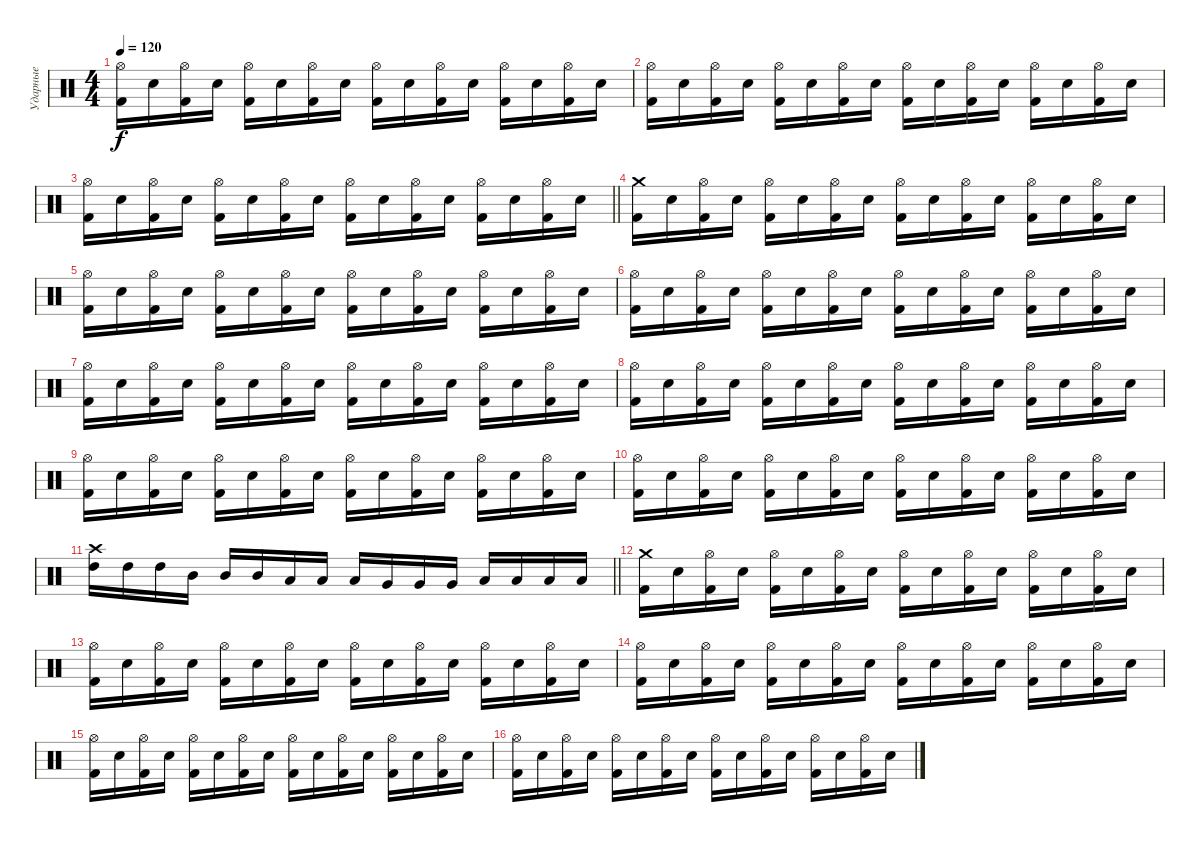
\track ("Ударные" "Ударные") {instrument percussion}
\staff {score}
\articulation defaults
\ts (4 4)
\tempo 120
\clef neutral
\ks c
("Kick (hit) 2" "Hi-Hat (open)").16{dy f} "Electric Snare (hit)".16 ("Kick (hit) 2" "Hi-Hat (open)").16 "Electric Snare (hit)".16 ("Kick (hit) 2" "Hi-Hat (open)").16 "Electric Snare (hit)".16 ("Kick (hit) 2" "Hi-Hat (open)").16 "Electric Snare (hit)".16 ("Kick (hit) 2" "Hi-Hat (open)").16 "Electric Snare (hit)".16 ("Kick (hit) 2" "Hi-Hat (open)").16 "Electric Snare (hit)".16 ("Kick (hit) 2" "Hi-Hat (open)").16 "Electric Snare (hit)".16 ("Kick (hit) 2" "Hi-Hat (open)").16 "Electric Snare (hit)".16 |
("Kick (hit) 2" "Hi-Hat (open)").16 "Electric Snare (hit)".16 ("Kick (hit) 2" "Hi-Hat (open)").16 "Electric Snare (hit)".16 ("Kick (hit) 2" "Hi-Hat (open)").16 "Electric Snare (hit)".16 ("Kick (hit) 2" "Hi-Hat (open)").16 "Electric Snare (hit)".16 ("Kick (hit) 2" "Hi-Hat (open)").16 "Electric Snare (hit)".16 ("Kick (hit) 2" "Hi-Hat (open)").16 "Electric Snare (hit)".16 ("Kick (hit) 2" "Hi-Hat (open)").16 "Electric Snare (hit)".16 ("Kick (hit) 2" "Hi-Hat (open)").16 "Electric Snare (hit)".16 |
\barLineRight lightlight
("Kick (hit) 2" "Hi-Hat (open)").16 "Electric Snare (hit)".16 ("Kick (hit) 2" "Hi-Hat (open)").16 "Electric Snare (hit)".16 ("Kick (hit) 2" "Hi-Hat (open)").16 "Electric Snare (hit)".16 ("Kick (hit) 2" "Hi-Hat (open)").16 "Electric Snare (hit)".16 ("Kick (hit) 2" "Hi-Hat (open)").16 "Electric Snare (hit)".16 ("Kick (hit) 2" "Hi-Hat (open)").16 "Electric Snare (hit)".16 ("Kick (hit) 2" "Hi-Hat (open)").16 "Electric Snare (hit)".16 ("Kick (hit) 2" "Hi-Hat (open)").16 "Electric Snare (hit)".16 |
("Kick (hit) 2" "Crash medium (hit)").16 "Electric Snare (hit)".16 ("Kick (hit) 2" "Hi-Hat (open)").16 "Electric Snare (hit)".16 ("Kick (hit) 2" "Hi-Hat (open)").16 "Electric Snare (hit)".16 ("Kick (hit) 2" "Hi-Hat (open)").16 "Electric Snare (hit)".16 ("Kick (hit) 2" "Hi-Hat (open)").16 "Electric Snare (hit)".16 ("Kick (hit) 2" "Hi-Hat (open)").16 "Electric Snare (hit)".16 ("Kick (hit) 2" "Hi-Hat (open)").16 "Electric Snare (hit)".16 ("Kick (hit) 2" "Hi-Hat (open)").16 "Electric Snare (hit)".16 |
("Kick (hit) 2" "Hi-Hat (open)").16 "Electric Snare (hit)".16 ("Kick (hit) 2" "Hi-Hat (open)").16 "Electric Snare (hit)".16 ("Kick (hit) 2" "Hi-Hat (open)").16 "Electric Snare (hit)".16 ("Kick (hit) 2" "Hi-Hat (open)").16 "Electric Snare (hit)".16 ("Kick (hit) 2" "Hi-Hat (open)").16 "Electric Snare (hit)".16 ("Kick (hit) 2" "Hi-Hat (open)").16 "Electric Snare (hit)".16 ("Kick (hit) 2" "Hi-Hat (open)").16 "Electric Snare (hit)".16 ("Kick (hit) 2" "Hi-Hat (open)").16 "Electric Snare (hit)".16 |
("Kick (hit) 2" "Hi-Hat (open)").16 "Electric Snare (hit)".16 ("Kick (hit) 2" "Hi-Hat (open)").16 "Electric Snare (hit)".16 ("Kick (hit) 2" "Hi-Hat (open)").16 "Electric Snare (hit)".16 ("Kick (hit) 2" "Hi-Hat (open)").16 "Electric Snare (hit)".16 ("Kick (hit) 2" "Hi-Hat (open)").16 "Electric Snare (hit)".16 ("Kick (hit) 2" "Hi-Hat (open)").16 "Electric Snare (hit)".16 ("Kick (hit) 2" "Hi-Hat (open)").16 "Electric Snare (hit)".16 ("Kick (hit) 2" "Hi-Hat (open)").16 "Electric Snare (hit)".16 |
("Kick (hit) 2" "Hi-Hat (open)").16 "Electric Snare (hit)".16 ("Kick (hit) 2" "Hi-Hat (open)").16 "Electric Snare (hit)".16 ("Kick (hit) 2" "Hi-Hat (open)").16 "Electric Snare (hit)".16 ("Kick (hit) 2" "Hi-Hat (open)").16 "Electric Snare (hit)".16 ("Kick (hit) 2" "Hi-Hat (open)").16 "Electric Snare (hit)".16 ("Kick (hit) 2" "Hi-Hat (open)").16 "Electric Snare (hit)".16 ("Kick (hit) 2" "Hi-Hat (open)").16 "Electric Snare (hit)".16 ("Kick (hit) 2" "Hi-Hat (open)").16 "Electric Snare (hit)".16 |
("Kick (hit) 2" "Hi-Hat (open)").16 "Electric Snare (hit)".16 ("Kick (hit) 2" "Hi-Hat (open)").16 "Electric Snare (hit)".16 ("Kick (hit) 2" "Hi-Hat (open)").16 "Electric Snare (hit)".16 ("Kick (hit) 2" "Hi-Hat (open)").16 "Electric Snare (hit)".16 ("Kick (hit) 2" "Hi-Hat (open)").16 "Electric Snare (hit)".16 ("Kick (hit) 2" "Hi-Hat (open)").16 "Electric Snare (hit)".16 ("Kick (hit) 2" "Hi-Hat (open)").16 "Electric Snare (hit)".16 ("Kick (hit) 2" "Hi-Hat (open)").16 "Electric Snare (hit)".16 |
("Kick (hit) 2" "Hi-Hat (open)").16 "Electric Snare (hit)".16 ("Kick (hit) 2" "Hi-Hat (open)").16 "Electric Snare (hit)".16 ("Kick (hit) 2" "Hi-Hat (open)").16 "Electric Snare (hit)".16 ("Kick (hit) 2" "Hi-Hat (open)").16 "Electric Snare (hit)".16 ("Kick (hit) 2" "Hi-Hat (open)").16 "Electric Snare (hit)".16 ("Kick (hit) 2" "Hi-Hat (open)").16 "Electric Snare (hit)".16 ("Kick (hit) 2" "Hi-Hat (open)").16 "Electric Snare (hit)".16 ("Kick (hit) 2" "Hi-Hat (open)").16 "Electric Snare (hit)".16 |
("Kick (hit) 2" "Hi-Hat (open)").16 "Electric Snare (hit)".16 ("Kick (hit) 2" "Hi-Hat (open)").16 "Electric Snare (hit)".16 ("Kick (hit) 2" "Hi-Hat (open)").16 "Electric Snare (hit)".16 ("Kick (hit) 2" "Hi-Hat (open)").16 "Electric Snare (hit)".16 ("Kick (hit) 2" "Hi-Hat (open)").16 "Electric Snare (hit)".16 ("Kick (hit) 2" "Hi-Hat (open)").16 "Electric Snare (hit)".16 ("Kick (hit) 2" "Hi-Hat (open)").16 "Electric Snare (hit)".16 ("Kick (hit) 2" "Hi-Hat (open)").16 "Electric Snare (hit)".16 |
\barLineRight lightlight
("High Tom (hit)" "Crash high (hit)").16 "High Tom (hit)".16 "High Tom (hit)".16 "Mid Tom (hit)".16 "Mid Tom (hit)".16 "Mid Tom (hit)".16 "Low Tom (hit)".16 "Low Tom (hit)".16 "Low Tom (hit)".16 "Very Low Tom (hit)".16 "Very Low Tom (hit)".16 "Very Low Tom (hit)".16 "Low Floor Tom (hit)".16 "Low Floor Tom (hit)".16 "Low Floor Tom (hit)".16 "Low Floor Tom (hit)".16 |
\section ("" "")
("Kick (hit) 2" "Crash medium (hit)").16 "Electric Snare (hit)".16 ("Kick (hit) 2" "Hi-Hat (open)").16 "Electric Snare (hit)".16 ("Kick (hit) 2" "Hi-Hat (open)").16 "Electric Snare (hit)".16 ("Kick (hit) 2" "Hi-Hat (open)").16 "Electric Snare (hit)".16 ("Kick (hit) 2" "Hi-Hat (open)").16 "Electric Snare (hit)".16 ("Kick (hit) 2" "Hi-Hat (open)").16 "Electric Snare (hit)".16 ("Kick (hit) 2" "Hi-Hat (open)").16 "Electric Snare (hit)".16 ("Kick (hit) 2" "Hi-Hat (open)").16 "Electric Snare (hit)".16 |
("Kick (hit) 2" "Hi-Hat (open)").16 "Electric Snare (hit)".16 ("Kick (hit) 2" "Hi-Hat (open)").16 "Electric Snare (hit)".16 ("Kick (hit) 2" "Hi-Hat (open)").16 "Electric Snare (hit)".16 ("Kick (hit) 2" "Hi-Hat (open)").16 "Electric Snare (hit)".16 ("Kick (hit) 2" "Hi-Hat (open)").16 "Electric Snare (hit)".16 ("Kick (hit) 2" "Hi-Hat (open)").16 "Electric Snare (hit)".16 ("Kick (hit) 2" "Hi-Hat (open)").16 "Electric Snare (hit)".16 ("Kick (hit) 2" "Hi-Hat (open)").16 "Electric Snare (hit)".16 |
("Kick (hit) 2" "Hi-Hat (open)").16 "Electric Snare (hit)".16 ("Kick (hit) 2" "Hi-Hat (open)").16 "Electric Snare (hit)".16 ("Kick (hit) 2" "Hi-Hat (open)").16 "Electric Snare (hit)".16 ("Kick (hit) 2" "Hi-Hat (open)").16 "Electric Snare (hit)".16 ("Kick (hit) 2" "Hi-Hat (open)").16 "Electric Snare (hit)".16 ("Kick (hit) 2" "Hi-Hat (open)").16 "Electric Snare (hit)".16 ("Kick (hit) 2" "Hi-Hat (open)").16 "Electric Snare (hit)".16 ("Kick (hit) 2" "Hi-Hat (open)").16 "Electric Snare (hit)".16 |
("Kick (hit) 2" "Hi-Hat (open)").16 "Electric Snare (hit)".16 ("Kick (hit) 2" "Hi-Hat (open)").16 "Electric Snare (hit)".16 ("Kick (hit) 2" "Hi-Hat (open)").16 "Electric Snare (hit)".16 ("Kick (hit) 2" "Hi-Hat (open)").16 "Electric Snare (hit)".16 ("Kick (hit) 2" "Hi-Hat (open)").16 "Electric Snare (hit)".16 ("Kick (hit) 2" "Hi-Hat (open)").16 "Electric Snare (hit)".16 ("Kick (hit) 2" "Hi-Hat (open)").16 "Electric Snare (hit)".16 ("Kick (hit) 2" "Hi-Hat (open)").16 "Electric Snare (hit)".16 |
("Kick (hit) 2" "Hi-Hat (open)").16 "Electric Snare (hit)".16 ("Kick (hit) 2" "Hi-Hat (open)").16 "Electric Snare (hit)".16 ("Kick (hit) 2" "Hi-Hat (open)").16 "Electric Snare (hit)".16 ("Kick (hit) 2" "Hi-Hat (open)").16 "Electric Snare (hit)".16 ("Kick (hit) 2" "Hi-Hat (open)").16 "Electric Snare (hit)".16 ("Kick (hit) 2" "Hi-Hat (open)").16 "Electric Snare (hit)".16 ("Kick (hit) 2" "Hi-Hat (open)").16 "Electric Snare (hit)".16 ("Kick (hit) 2" "Hi-Hat (open)").16 "Electric Snare (hit)".16
